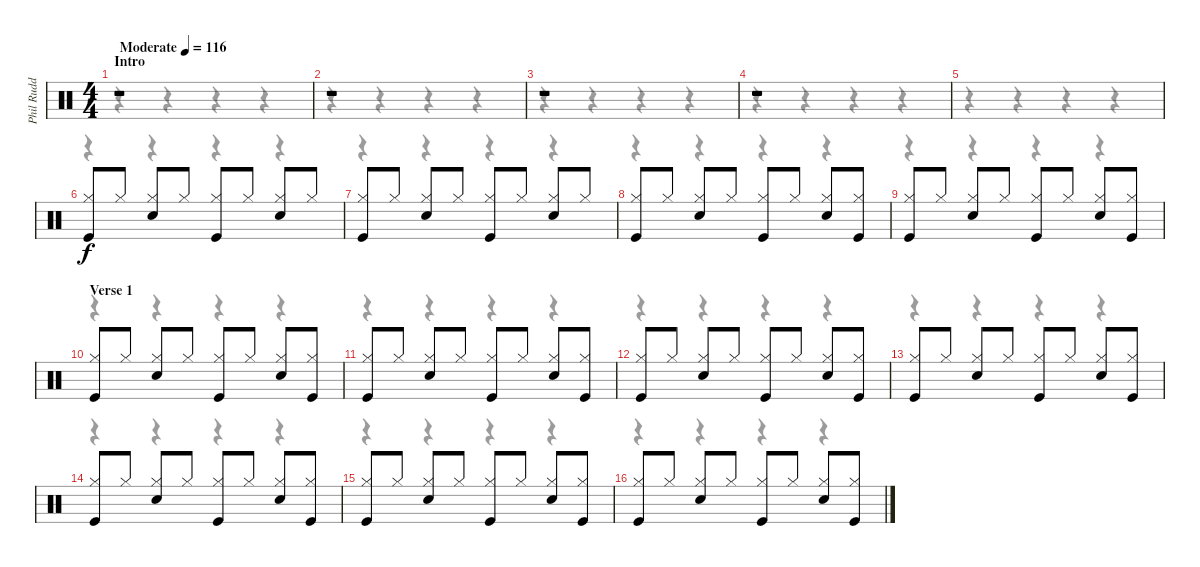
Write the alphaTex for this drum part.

\track ("Phil Rudd" "Phil Rudd") {instrument percussion}
\staff {score}
\articulation defaults
\voice
\ts (4 4)
\section ("" "Intro")
\tempo (116 "Moderate")
\clef neutral
\ks c
r.1{dy f} |
r.1 |
r.1 |
r.1 |
|
("Hi-Hat (closed)" "Kick (hit)").8 "Hi-Hat (closed)".8 ("Hi-Hat (closed)" "Snare (hit) 2").8 "Hi-Hat (closed)".8 ("Hi-Hat (closed)" "Kick (hit)").8 "Hi-Hat (closed)".8 ("Hi-Hat (closed)" "Snare (hit) 2").8 "Hi-Hat (closed)".8 |
("Hi-Hat (closed)" "Kick (hit)").8 "Hi-Hat (closed)".8 ("Hi-Hat (closed)" "Snare (hit) 2").8 "Hi-Hat (closed)".8 ("Hi-Hat (closed)" "Kick (hit)").8 "Hi-Hat (closed)".8 ("Hi-Hat (closed)" "Snare (hit) 2").8 "Hi-Hat (closed)".8 |
("Hi-Hat (closed)" "Kick (hit)").8 "Hi-Hat (closed)".8 ("Hi-Hat (closed)" "Snare (hit) 2").8 "Hi-Hat (closed)".8 ("Hi-Hat (closed)" "Kick (hit)").8 "Hi-Hat (closed)".8 ("Hi-Hat (closed)" "Snare (hit) 2").8 ("Hi-Hat (closed)" "Kick (hit)").8 |
("Hi-Hat (closed)" "Kick (hit)").8 "Hi-Hat (closed)".8 ("Hi-Hat (closed)" "Snare (hit) 2").8 "Hi-Hat (closed)".8 ("Hi-Hat (closed)" "Kick (hit)").8 "Hi-Hat (closed)".8 ("Hi-Hat (closed)" "Snare (hit) 2").8 ("Hi-Hat (closed)" "Kick (hit)").8 |
\section ("" "Verse 1")
("Hi-Hat (closed)" "Kick (hit)").8 "Hi-Hat (closed)".8 ("Hi-Hat (closed)" "Snare (hit) 2").8 "Hi-Hat (closed)".8 ("Hi-Hat (closed)" "Kick (hit)").8 "Hi-Hat (closed)".8 ("Hi-Hat (closed)" "Snare (hit) 2").8 ("Hi-Hat (closed)" "Kick (hit)").8 |
("Hi-Hat (closed)" "Kick (hit)").8 "Hi-Hat (closed)".8 ("Hi-Hat (closed)" "Snare (hit) 2").8 "Hi-Hat (closed)".8 ("Hi-Hat (closed)" "Kick (hit)").8 "Hi-Hat (closed)".8 ("Hi-Hat (closed)" "Snare (hit) 2").8 ("Hi-Hat (closed)" "Kick (hit)").8 |
("Hi-Hat (closed)" "Kick (hit)").8 "Hi-Hat (closed)".8 ("Hi-Hat (closed)" "Snare (hit) 2").8 "Hi-Hat (closed)".8 ("Hi-Hat (closed)" "Kick (hit)").8 "Hi-Hat (closed)".8 ("Hi-Hat (closed)" "Snare (hit) 2").8 ("Hi-Hat (closed)" "Kick (hit)").8 |
("Hi-Hat (closed)" "Kick (hit)").8 "Hi-Hat (closed)".8 ("Hi-Hat (closed)" "Snare (hit) 2").8 "Hi-Hat (closed)".8 ("Hi-Hat (closed)" "Kick (hit)").8 "Hi-Hat (closed)".8 ("Hi-Hat (closed)" "Snare (hit) 2").8 ("Hi-Hat (closed)" "Kick (hit)").8 |
("Hi-Hat (closed)" "Kick (hit)").8 "Hi-Hat (closed)".8 ("Hi-Hat (closed)" "Snare (hit) 2").8 "Hi-Hat (closed)".8 ("Hi-Hat (closed)" "Kick (hit)").8 "Hi-Hat (closed)".8 ("Hi-Hat (closed)" "Snare (hit) 2").8 ("Hi-Hat (closed)" "Kick (hit)").8 |
("Hi-Hat (closed)" "Kick (hit)").8 "Hi-Hat (closed)".8 ("Hi-Hat (closed)" "Snare (hit) 2").8 "Hi-Hat (closed)".8 ("Hi-Hat (closed)" "Kick (hit)").8 "Hi-Hat (closed)".8 ("Hi-Hat (closed)" "Snare (hit) 2").8 ("Hi-Hat (closed)" "Kick (hit)").8 |
("Hi-Hat (closed)" "Kick (hit)").8 "Hi-Hat (closed)".8 ("Hi-Hat (closed)" "Snare (hit) 2").8 "Hi-Hat (closed)".8 ("Hi-Hat (closed)" "Kick (hit)").8 "Hi-Hat (closed)".8 ("Hi-Hat (closed)" "Snare (hit) 2").8 ("Hi-Hat (closed)" "Kick (hit)").8
\voice
\clef neutral
\ottava regular
\simile none
\ks c
r.4{dy f} r.4 r.4 r.4 |
r.4 r.4 r.4 r.4 |
r.4 r.4 r.4 r.4 |
r.4 r.4 r.4 r.4 |
r.4 r.4 r.4 r.4 |
r.4 r.4 r.4 r.4 |
r.4 r.4 r.4 r.4 |
r.4 r.4 r.4 r.4 |
r.4 r.4 r.4 r.4 |
r.4 r.4 r.4 r.4 |
r.4 r.4 r.4 r.4 |
r.4 r.4 r.4 r.4 |
r.4 r.4 r.4 r.4 |
r.4 r.4 r.4 r.4 |
r.4 r.4 r.4 r.4 |
r.4 r.4 r.4 r.4
